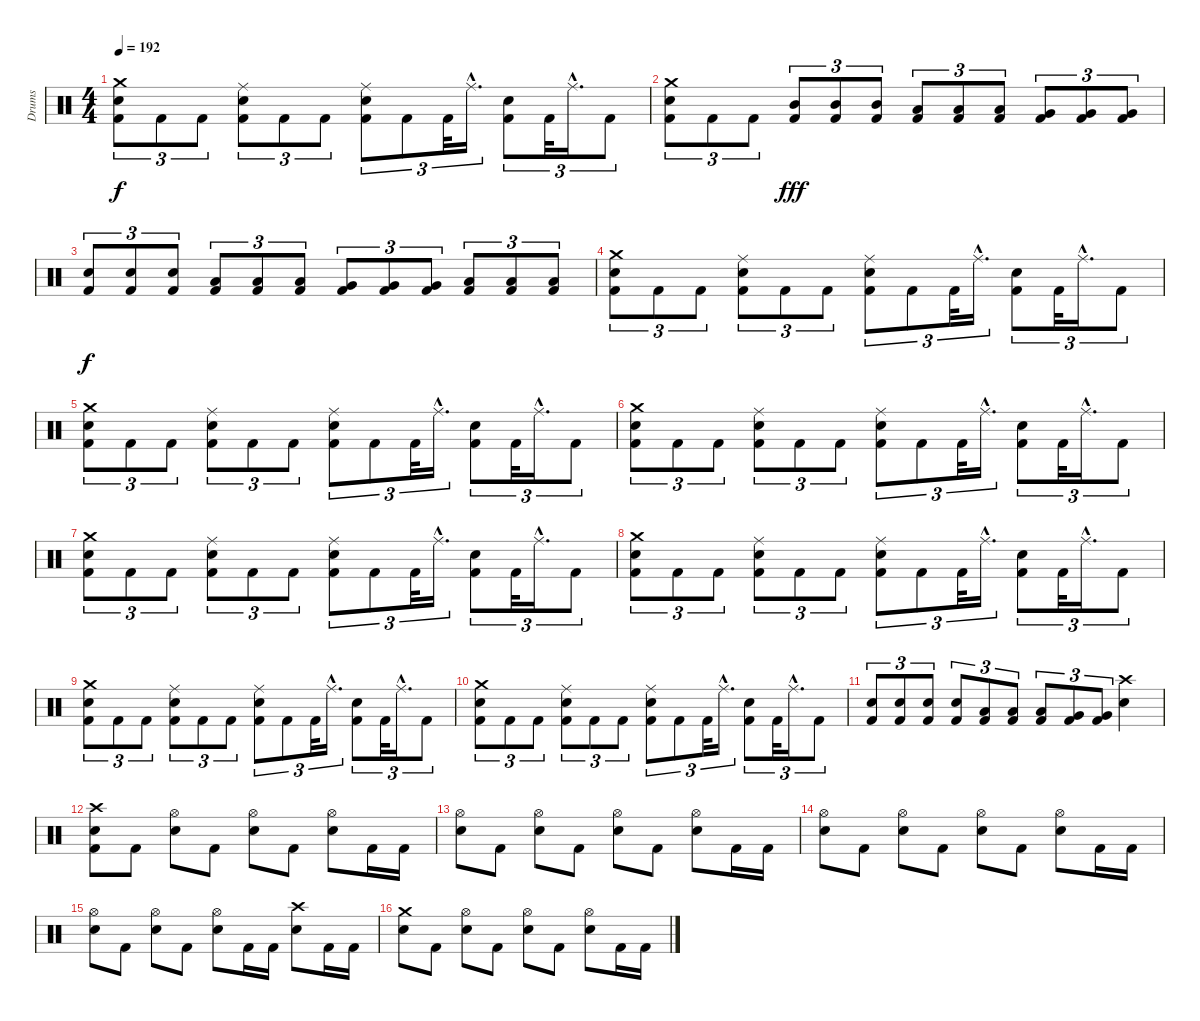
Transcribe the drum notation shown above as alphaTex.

\track ("Drums" "Drums") {instrument percussion}
\staff {score}
\articulation defaults
\ts (4 4)
\tempo 192
\clef neutral
\ks c
("Crash medium (hit)" "Electric Snare (hit)" "Kick (hit) 2").8{tu (3 2) dy f} "Kick (hit) 2".8{tu (3 2)} "Kick (hit) 2".8{tu (3 2)} ("Ride (middle)" "Electric Snare (hit)" "Kick (hit) 2").8{tu (3 2)} "Kick (hit) 2".8{tu (3 2)} "Kick (hit) 2".8{tu (3 2)} ("Ride (middle)" "Electric Snare (hit)" "Kick (hit) 2").8{tu (3 2)} "Kick (hit) 2".8{tu (3 2)} "Kick (hit) 2".32{tu (3 2)} "Ride (middle)"{hac}.16{d tu (3 2)} ("Electric Snare (hit)" "Kick (hit) 2").8{tu (3 2)} "Kick (hit) 2".32{tu (3 2)} "Ride (middle)"{hac}.16{d tu (3 2)} "Kick (hit) 2".8{tu (3 2)} |
("Crash medium (hit)" "Electric Snare (hit)" "Kick (hit) 2").8{tu (3 2)} "Kick (hit) 2".8{tu (3 2)} "Kick (hit) 2".8{tu (3 2)} ("Mid Tom (hit)" "Kick (hit) 2").8{tu (3 2) dy fff} ("Mid Tom (hit)" "Kick (hit) 2").8{tu (3 2)} ("Mid Tom (hit)" "Kick (hit) 2").8{tu (3 2)} ("Low Tom (hit)" "Kick (hit) 2").8{tu (3 2)} ("Low Tom (hit)" "Kick (hit) 2").8{tu (3 2)} ("Low Tom (hit)" "Kick (hit) 2").8{tu (3 2)} ("Very Low Tom (hit)" "Kick (hit) 2").8{tu (3 2)} ("Very Low Tom (hit)" "Kick (hit) 2").8{tu (3 2)} ("Very Low Tom (hit)" "Kick (hit) 2").8{tu (3 2)} |
("Electric Snare (hit)" "Kick (hit) 2").8{tu (3 2) dy f} ("Electric Snare (hit)" "Kick (hit) 2").8{tu (3 2)} ("Electric Snare (hit)" "Kick (hit) 2").8{tu (3 2)} ("Low Tom (hit)" "Kick (hit) 2").8{tu (3 2)} ("Low Tom (hit)" "Kick (hit) 2").8{tu (3 2)} ("Low Tom (hit)" "Kick (hit) 2").8{tu (3 2)} ("Very Low Tom (hit)" "Kick (hit) 2").8{tu (3 2)} ("Very Low Tom (hit)" "Kick (hit) 2").8{tu (3 2)} ("Very Low Tom (hit)" "Kick (hit) 2").8{tu (3 2)} ("Low Floor Tom (hit)" "Kick (hit) 2").8{tu (3 2)} ("Low Floor Tom (hit)" "Kick (hit) 2").8{tu (3 2)} ("Low Floor Tom (hit)" "Kick (hit) 2").8{tu (3 2)} |
("Crash medium (hit)" "Electric Snare (hit)" "Kick (hit) 2").8{tu (3 2)} "Kick (hit) 2".8{tu (3 2)} "Kick (hit) 2".8{tu (3 2)} ("Ride (middle)" "Electric Snare (hit)" "Kick (hit) 2").8{tu (3 2)} "Kick (hit) 2".8{tu (3 2)} "Kick (hit) 2".8{tu (3 2)} ("Ride (middle)" "Electric Snare (hit)" "Kick (hit) 2").8{tu (3 2)} "Kick (hit) 2".8{tu (3 2)} "Kick (hit) 2".32{tu (3 2)} "Ride (middle)"{hac}.16{d tu (3 2)} ("Electric Snare (hit)" "Kick (hit) 2").8{tu (3 2)} "Kick (hit) 2".32{tu (3 2)} "Ride (middle)"{hac}.16{d tu (3 2)} "Kick (hit) 2".8{tu (3 2)} |
("Crash medium (hit)" "Electric Snare (hit)" "Kick (hit) 2").8{tu (3 2)} "Kick (hit) 2".8{tu (3 2)} "Kick (hit) 2".8{tu (3 2)} ("Ride (middle)" "Electric Snare (hit)" "Kick (hit) 2").8{tu (3 2)} "Kick (hit) 2".8{tu (3 2)} "Kick (hit) 2".8{tu (3 2)} ("Ride (middle)" "Electric Snare (hit)" "Kick (hit) 2").8{tu (3 2)} "Kick (hit) 2".8{tu (3 2)} "Kick (hit) 2".32{tu (3 2)} "Ride (middle)"{hac}.16{d tu (3 2)} ("Electric Snare (hit)" "Kick (hit) 2").8{tu (3 2)} "Kick (hit) 2".32{tu (3 2)} "Ride (middle)"{hac}.16{d tu (3 2)} "Kick (hit) 2".8{tu (3 2)} |
("Crash medium (hit)" "Electric Snare (hit)" "Kick (hit) 2").8{tu (3 2)} "Kick (hit) 2".8{tu (3 2)} "Kick (hit) 2".8{tu (3 2)} ("Ride (middle)" "Electric Snare (hit)" "Kick (hit) 2").8{tu (3 2)} "Kick (hit) 2".8{tu (3 2)} "Kick (hit) 2".8{tu (3 2)} ("Ride (middle)" "Electric Snare (hit)" "Kick (hit) 2").8{tu (3 2)} "Kick (hit) 2".8{tu (3 2)} "Kick (hit) 2".32{tu (3 2)} "Ride (middle)"{hac}.16{d tu (3 2)} ("Electric Snare (hit)" "Kick (hit) 2").8{tu (3 2)} "Kick (hit) 2".32{tu (3 2)} "Ride (middle)"{hac}.16{d tu (3 2)} "Kick (hit) 2".8{tu (3 2)} |
("Crash medium (hit)" "Electric Snare (hit)" "Kick (hit) 2").8{tu (3 2)} "Kick (hit) 2".8{tu (3 2)} "Kick (hit) 2".8{tu (3 2)} ("Ride (middle)" "Electric Snare (hit)" "Kick (hit) 2").8{tu (3 2)} "Kick (hit) 2".8{tu (3 2)} "Kick (hit) 2".8{tu (3 2)} ("Ride (middle)" "Electric Snare (hit)" "Kick (hit) 2").8{tu (3 2)} "Kick (hit) 2".8{tu (3 2)} "Kick (hit) 2".32{tu (3 2)} "Ride (middle)"{hac}.16{d tu (3 2)} ("Electric Snare (hit)" "Kick (hit) 2").8{tu (3 2)} "Kick (hit) 2".32{tu (3 2)} "Ride (middle)"{hac}.16{d tu (3 2)} "Kick (hit) 2".8{tu (3 2)} |
("Crash medium (hit)" "Electric Snare (hit)" "Kick (hit) 2").8{tu (3 2)} "Kick (hit) 2".8{tu (3 2)} "Kick (hit) 2".8{tu (3 2)} ("Ride (middle)" "Electric Snare (hit)" "Kick (hit) 2").8{tu (3 2)} "Kick (hit) 2".8{tu (3 2)} "Kick (hit) 2".8{tu (3 2)} ("Ride (middle)" "Electric Snare (hit)" "Kick (hit) 2").8{tu (3 2)} "Kick (hit) 2".8{tu (3 2)} "Kick (hit) 2".32{tu (3 2)} "Ride (middle)"{hac}.16{d tu (3 2)} ("Electric Snare (hit)" "Kick (hit) 2").8{tu (3 2)} "Kick (hit) 2".32{tu (3 2)} "Ride (middle)"{hac}.16{d tu (3 2)} "Kick (hit) 2".8{tu (3 2)} |
("Crash medium (hit)" "Electric Snare (hit)" "Kick (hit) 2").8{tu (3 2)} "Kick (hit) 2".8{tu (3 2)} "Kick (hit) 2".8{tu (3 2)} ("Ride (middle)" "Electric Snare (hit)" "Kick (hit) 2").8{tu (3 2)} "Kick (hit) 2".8{tu (3 2)} "Kick (hit) 2".8{tu (3 2)} ("Ride (middle)" "Electric Snare (hit)" "Kick (hit) 2").8{tu (3 2)} "Kick (hit) 2".8{tu (3 2)} "Kick (hit) 2".32{tu (3 2)} "Ride (middle)"{hac}.16{d tu (3 2)} ("Electric Snare (hit)" "Kick (hit) 2").8{tu (3 2)} "Kick (hit) 2".32{tu (3 2)} "Ride (middle)"{hac}.16{d tu (3 2)} "Kick (hit) 2".8{tu (3 2)} |
("Crash medium (hit)" "Electric Snare (hit)" "Kick (hit) 2").8{tu (3 2)} "Kick (hit) 2".8{tu (3 2)} "Kick (hit) 2".8{tu (3 2)} ("Ride (middle)" "Electric Snare (hit)" "Kick (hit) 2").8{tu (3 2)} "Kick (hit) 2".8{tu (3 2)} "Kick (hit) 2".8{tu (3 2)} ("Ride (middle)" "Electric Snare (hit)" "Kick (hit) 2").8{tu (3 2)} "Kick (hit) 2".8{tu (3 2)} "Kick (hit) 2".32{tu (3 2)} "Ride (middle)"{hac}.16{d tu (3 2)} ("Electric Snare (hit)" "Kick (hit) 2").8{tu (3 2)} "Kick (hit) 2".32{tu (3 2)} "Ride (middle)"{hac}.16{d tu (3 2)} "Kick (hit) 2".8{tu (3 2)} |
("Electric Snare (hit)" "Kick (hit) 2").8{tu (3 2)} ("Electric Snare (hit)" "Kick (hit) 2").8{tu (3 2)} ("Electric Snare (hit)" "Kick (hit) 2").8{tu (3 2)} ("Electric Snare (hit)" "Kick (hit) 2").8{tu (3 2)} ("Low Tom (hit)" "Kick (hit) 2").8{tu (3 2)} ("Low Tom (hit)" "Kick (hit) 2").8{tu (3 2)} ("Low Tom (hit)" "Kick (hit) 2").8{tu (3 2)} ("Very Low Tom (hit)" "Kick (hit) 2").8{tu (3 2)} ("Very Low Tom (hit)" "Kick (hit) 2").8{tu (3 2)} ("Crash high (hit)" "Electric Snare (hit)").4 |
("Crash high (hit)" "Electric Snare (hit)" "Kick (hit) 2").8 "Kick (hit) 2".8 ("Hi-Hat (open)" "Electric Snare (hit)").8 "Kick (hit) 2".8 ("Hi-Hat (open)" "Electric Snare (hit)").8 "Kick (hit) 2".8 ("Hi-Hat (open)" "Electric Snare (hit)").8 "Kick (hit) 2".16 "Kick (hit) 2".16 |
("Hi-Hat (open)" "Electric Snare (hit)").8 "Kick (hit) 2".8 ("Hi-Hat (open)" "Electric Snare (hit)").8 "Kick (hit) 2".8 ("Hi-Hat (open)" "Electric Snare (hit)").8 "Kick (hit) 2".8 ("Hi-Hat (open)" "Electric Snare (hit)").8 "Kick (hit) 2".16 "Kick (hit) 2".16 |
("Hi-Hat (open)" "Electric Snare (hit)").8 "Kick (hit) 2".8 ("Hi-Hat (open)" "Electric Snare (hit)").8 "Kick (hit) 2".8 ("Hi-Hat (open)" "Electric Snare (hit)").8 "Kick (hit) 2".8 ("Hi-Hat (open)" "Electric Snare (hit)").8 "Kick (hit) 2".16 "Kick (hit) 2".16 |
("Hi-Hat (open)" "Electric Snare (hit)").8 "Kick (hit) 2".8 ("Hi-Hat (open)" "Electric Snare (hit)").8 "Kick (hit) 2".8 ("Hi-Hat (open)" "Electric Snare (hit)").8 "Kick (hit) 2".16 "Kick (hit) 2".16 ("Crash high (hit)" "Electric Snare (hit)").8 "Kick (hit) 2".16 "Kick (hit) 2".16 |
("Crash medium (hit)" "Electric Snare (hit)").8 "Kick (hit) 2".8 ("Hi-Hat (open)" "Electric Snare (hit)").8 "Kick (hit) 2".8 ("Hi-Hat (open)" "Electric Snare (hit)").8 "Kick (hit) 2".8 ("Hi-Hat (open)" "Electric Snare (hit)").8 "Kick (hit) 2".16 "Kick (hit) 2".16
